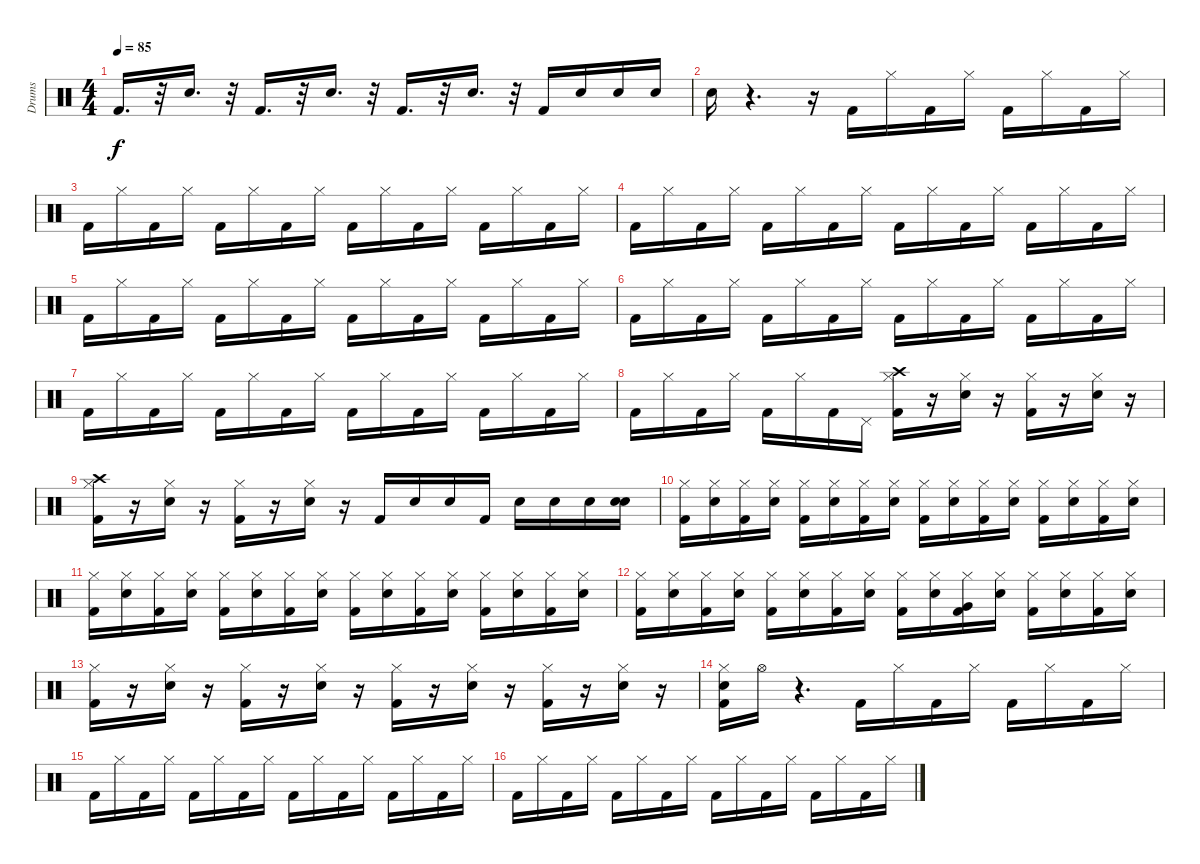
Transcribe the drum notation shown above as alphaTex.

\track ("Drums" "Drums") {instrument percussion}
\staff {score}
\articulation defaults
\ts (4 4)
\tempo 85
\clef neutral
\ks c "Kick (hit) 2".16{d dy f}
r.32 "Snare (hit) 2".16{d} r.32 "Kick (hit) 2".16{d} r.32 "Snare (hit) 2".16{d} r.32 "Kick (hit) 2".16{d} r.32 "Snare (hit) 2".16{d} r.32 "Kick (hit) 2".16 "Snare (hit) 2".16 "Snare (hit) 2".16 "Snare (hit) 2".16 |
"Snare (hit) 2".16 r.4{d} r.16 "Kick (hit) 2".16 "Hi-Hat (closed)".16 "Kick (hit) 2".16 "Hi-Hat (closed)".16 "Kick (hit) 2".16 "Hi-Hat (closed)".16 "Kick (hit) 2".16 "Hi-Hat (closed)".16 |
"Kick (hit) 2".16 "Hi-Hat (closed)".16 "Kick (hit) 2".16 "Hi-Hat (closed)".16 "Kick (hit) 2".16 "Hi-Hat (closed)".16 "Kick (hit) 2".16 "Hi-Hat (closed)".16 "Kick (hit) 2".16 "Hi-Hat (closed)".16 "Kick (hit) 2".16 "Hi-Hat (closed)".16 "Kick (hit) 2".16 "Hi-Hat (closed)".16 "Kick (hit) 2".16 "Hi-Hat (closed)".16 |
"Kick (hit) 2".16 "Hi-Hat (closed)".16 "Kick (hit) 2".16 "Hi-Hat (closed)".16 "Kick (hit) 2".16 "Hi-Hat (closed)".16 "Kick (hit) 2".16 "Hi-Hat (closed)".16 "Kick (hit) 2".16 "Hi-Hat (closed)".16 "Kick (hit) 2".16 "Hi-Hat (closed)".16 "Kick (hit) 2".16 "Hi-Hat (closed)".16 "Kick (hit) 2".16 "Hi-Hat (closed)".16 |
"Kick (hit) 2".16 "Hi-Hat (closed)".16 "Kick (hit) 2".16 "Hi-Hat (closed)".16 "Kick (hit) 2".16 "Hi-Hat (closed)".16 "Kick (hit) 2".16 "Hi-Hat (closed)".16 "Kick (hit) 2".16 "Hi-Hat (closed)".16 "Kick (hit) 2".16 "Hi-Hat (closed)".16 "Kick (hit) 2".16 "Hi-Hat (closed)".16 "Kick (hit) 2".16 "Hi-Hat (closed)".16 |
"Kick (hit) 2".16 "Hi-Hat (closed)".16 "Kick (hit) 2".16 "Hi-Hat (closed)".16 "Kick (hit) 2".16 "Hi-Hat (closed)".16 "Kick (hit) 2".16 "Hi-Hat (closed)".16 "Kick (hit) 2".16 "Hi-Hat (closed)".16 "Kick (hit) 2".16 "Hi-Hat (closed)".16 "Kick (hit) 2".16 "Hi-Hat (closed)".16 "Kick (hit) 2".16 "Hi-Hat (closed)".16 |
"Kick (hit) 2".16 "Hi-Hat (closed)".16 "Kick (hit) 2".16 "Hi-Hat (closed)".16 "Kick (hit) 2".16 "Hi-Hat (closed)".16 "Kick (hit) 2".16 "Hi-Hat (closed)".16 "Kick (hit) 2".16 "Hi-Hat (closed)".16 "Kick (hit) 2".16 "Hi-Hat (closed)".16 "Kick (hit) 2".16 "Hi-Hat (closed)".16 "Kick (hit) 2".16 "Hi-Hat (closed)".16 |
"Kick (hit) 2".16 "Hi-Hat (closed)".16 "Kick (hit) 2".16 "Hi-Hat (closed)".16 "Kick (hit) 2".16 "Hi-Hat (closed)".16 "Kick (hit) 2".16 "Pedal Hi-Hat (hit)".16 ("Kick (hit) 2" "Hi-Hat (closed)" "Crash high (hit)").16 r.16 ("Hi-Hat (closed)" "Snare (hit) 2").16 r.16 ("Hi-Hat (closed)" "Kick (hit) 2").16 r.16 ("Hi-Hat (closed)" "Snare (hit) 2").16 r.16 |
("Hi-Hat (closed)" "Kick (hit) 2" "Crash high (hit)").16 r.16 ("Snare (hit) 2" "Hi-Hat (closed)").16 r.16 ("Hi-Hat (closed)" "Kick (hit) 2").16 r.16 ("Hi-Hat (closed)" "Snare (hit) 2").16 r.16 "Kick (hit) 2".16 "Snare (hit) 2".16 "Snare (hit) 2".16 "Kick (hit) 2".16 "Snare (hit) 2".16 "Snare (hit) 2".16 "Snare (hit) 2".16 ("Snare (hit) 2" "Snare (hit) 2").16 |
("Hi-Hat (closed)" "Kick (hit) 2").16 ("Hi-Hat (closed)" "Snare (hit) 2").16 ("Hi-Hat (closed)" "Kick (hit) 2").16 ("Snare (hit) 2" "Hi-Hat (closed)").16 ("Hi-Hat (closed)" "Kick (hit) 2").16 ("Hi-Hat (closed)" "Snare (hit) 2").16 ("Kick (hit) 2" "Hi-Hat (closed)").16 ("Snare (hit) 2" "Hi-Hat (closed)").16 ("Kick (hit) 2" "Hi-Hat (closed)").16 ("Hi-Hat (closed)" "Snare (hit) 2").16 ("Hi-Hat (closed)" "Kick (hit) 2").16 ("Snare (hit) 2" "Hi-Hat (closed)").16 ("Hi-Hat (closed)" "Kick (hit) 2").16 ("Snare (hit) 2" "Hi-Hat (closed)").16 ("Kick (hit) 2" "Hi-Hat (closed)").16 ("Hi-Hat (closed)" "Snare (hit) 2").16 |
("Hi-Hat (closed)" "Kick (hit) 2").16 ("Hi-Hat (closed)" "Snare (hit) 2").16 ("Hi-Hat (closed)" "Kick (hit) 2").16 ("Hi-Hat (closed)" "Snare (hit) 2").16 ("Kick (hit) 2" "Hi-Hat (closed)").16 ("Hi-Hat (closed)" "Snare (hit) 2").16 ("Hi-Hat (closed)" "Kick (hit) 2").16 ("Hi-Hat (closed)" "Snare (hit) 2").16 ("Hi-Hat (closed)" "Kick (hit) 2").16 ("Hi-Hat (closed)" "Snare (hit) 2").16 ("Kick (hit) 2" "Hi-Hat (closed)").16 ("Hi-Hat (closed)" "Snare (hit) 2").16 ("Kick (hit) 2" "Hi-Hat (closed)").16 ("Snare (hit) 2" "Hi-Hat (closed)").16 ("Hi-Hat (closed)" "Kick (hit) 2").16 ("Hi-Hat (closed)" "Snare (hit) 2").16 |
("Kick (hit) 2" "Hi-Hat (closed)").16 ("Hi-Hat (closed)" "Snare (hit) 2").16 ("Kick (hit) 2" "Hi-Hat (closed)").16 ("Hi-Hat (closed)" "Snare (hit) 2").16 ("Hi-Hat (closed)" "Kick (hit) 2").16 ("Snare (hit) 2" "Hi-Hat (closed)").16 ("Hi-Hat (closed)" "Kick (hit) 2").16 ("Hi-Hat (closed)" "Snare (hit) 2").16 ("Kick (hit) 2" "Hi-Hat (closed)").16 ("Hi-Hat (closed)" "Snare (hit) 2").16 ("Very Low Tom (hit)" "Hi-Hat (closed)" "Kick (hit) 2").16 ("Hi-Hat (closed)" "Snare (hit) 2").16 ("Hi-Hat (closed)" "Kick (hit) 2").16 ("Hi-Hat (closed)" "Snare (hit) 2").16 ("Hi-Hat (closed)" "Kick (hit) 2").16 ("Snare (hit) 2" "Hi-Hat (closed)").16 |
("Hi-Hat (closed)" "Kick (hit) 2").16 r.16 ("Hi-Hat (closed)" "Snare (hit) 2").16 r.16 ("Hi-Hat (closed)" "Kick (hit) 2").16 r.16 ("Hi-Hat (closed)" "Snare (hit) 2").16 r.16 ("Hi-Hat (closed)" "Kick (hit) 2").16 r.16 ("Snare (hit) 2" "Hi-Hat (closed)").16 r.16 ("Hi-Hat (closed)" "Kick (hit) 2").16 r.16 ("Snare (hit) 2" "Hi-Hat (closed)").16 r.16 |
("Hi-Hat (closed)" "Kick (hit) 2" "Snare (hit) 2").16 "Hi-Hat (open)".16 r.4{d} "Kick (hit) 2".16 "Hi-Hat (closed)".16 "Kick (hit) 2".16 "Hi-Hat (closed)".16 "Kick (hit) 2".16 "Hi-Hat (closed)".16 "Kick (hit) 2".16 "Hi-Hat (closed)".16 |
"Kick (hit) 2".16 "Hi-Hat (closed)".16 "Kick (hit) 2".16 "Hi-Hat (closed)".16 "Kick (hit) 2".16 "Hi-Hat (closed)".16 "Kick (hit) 2".16 "Hi-Hat (closed)".16 "Kick (hit) 2".16 "Hi-Hat (closed)".16 "Kick (hit) 2".16 "Hi-Hat (closed)".16 "Kick (hit) 2".16 "Hi-Hat (closed)".16 "Kick (hit) 2".16 "Hi-Hat (closed)".16 |
"Kick (hit) 2".16 "Hi-Hat (closed)".16 "Kick (hit) 2".16 "Hi-Hat (closed)".16 "Kick (hit) 2".16 "Hi-Hat (closed)".16 "Kick (hit) 2".16 "Hi-Hat (closed)".16 "Kick (hit) 2".16 "Hi-Hat (closed)".16 "Kick (hit) 2".16 "Hi-Hat (closed)".16 "Kick (hit) 2".16 "Hi-Hat (closed)".16 "Kick (hit) 2".16 "Hi-Hat (closed)".16
